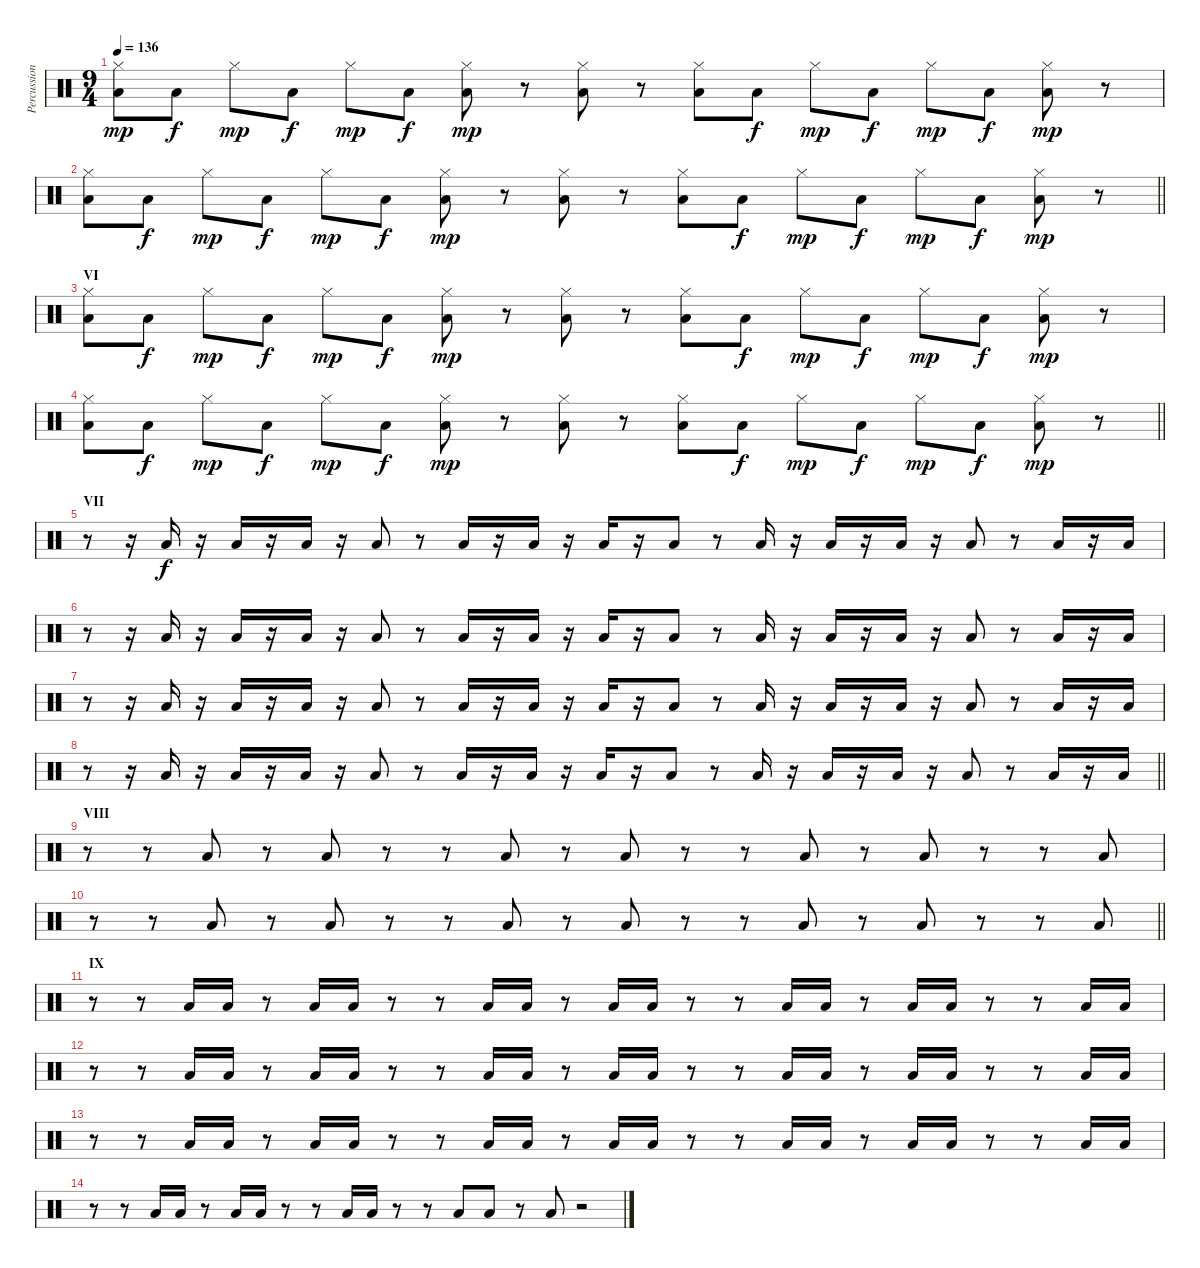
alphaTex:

\track ("Percussions" "Percussion") {instrument percussion}
\staff {score}
\articulation defaults
\ts (9 4)
\tempo 136
\clef neutral
\ks c
("Hi-Hat (closed)" "Low Tom (hit)").8{dy mp} "Low Tom (hit)".8{dy f} "Hi-Hat (closed)".8{dy mp} "Low Tom (hit)".8{dy f} "Hi-Hat (closed)".8{dy mp} "Low Tom (hit)".8{dy f} ("Hi-Hat (closed)" "Low Tom (hit)").8{dy mp} r.8 ("Hi-Hat (closed)" "Low Tom (hit)").8 r.8 ("Hi-Hat (closed)" "Low Tom (hit)").8 "Low Tom (hit)".8{dy f} "Hi-Hat (closed)".8{dy mp} "Low Tom (hit)".8{dy f} "Hi-Hat (closed)".8{dy mp} "Low Tom (hit)".8{dy f} ("Hi-Hat (closed)" "Low Tom (hit)").8{dy mp} r.8 |
\barLineRight lightlight
("Hi-Hat (closed)" "Low Tom (hit)").8 "Low Tom (hit)".8{dy f} "Hi-Hat (closed)".8{dy mp} "Low Tom (hit)".8{dy f} "Hi-Hat (closed)".8{dy mp} "Low Tom (hit)".8{dy f} ("Hi-Hat (closed)" "Low Tom (hit)").8{dy mp} r.8 ("Hi-Hat (closed)" "Low Tom (hit)").8 r.8 ("Hi-Hat (closed)" "Low Tom (hit)").8 "Low Tom (hit)".8{dy f} "Hi-Hat (closed)".8{dy mp} "Low Tom (hit)".8{dy f} "Hi-Hat (closed)".8{dy mp} "Low Tom (hit)".8{dy f} ("Hi-Hat (closed)" "Low Tom (hit)").8{dy mp} r.8 |
\section ("" "VI")
("Hi-Hat (closed)" "Low Tom (hit)").8 "Low Tom (hit)".8{dy f} "Hi-Hat (closed)".8{dy mp} "Low Tom (hit)".8{dy f} "Hi-Hat (closed)".8{dy mp} "Low Tom (hit)".8{dy f} ("Hi-Hat (closed)" "Low Tom (hit)").8{dy mp} r.8 ("Hi-Hat (closed)" "Low Tom (hit)").8 r.8 ("Hi-Hat (closed)" "Low Tom (hit)").8 "Low Tom (hit)".8{dy f} "Hi-Hat (closed)".8{dy mp} "Low Tom (hit)".8{dy f} "Hi-Hat (closed)".8{dy mp} "Low Tom (hit)".8{dy f} ("Hi-Hat (closed)" "Low Tom (hit)").8{dy mp} r.8 |
\barLineRight lightlight
("Hi-Hat (closed)" "Low Tom (hit)").8 "Low Tom (hit)".8{dy f} "Hi-Hat (closed)".8{dy mp} "Low Tom (hit)".8{dy f} "Hi-Hat (closed)".8{dy mp} "Low Tom (hit)".8{dy f} ("Hi-Hat (closed)" "Low Tom (hit)").8{dy mp} r.8 ("Hi-Hat (closed)" "Low Tom (hit)").8 r.8 ("Hi-Hat (closed)" "Low Tom (hit)").8 "Low Tom (hit)".8{dy f} "Hi-Hat (closed)".8{dy mp} "Low Tom (hit)".8{dy f} "Hi-Hat (closed)".8{dy mp} "Low Tom (hit)".8{dy f} ("Hi-Hat (closed)" "Low Tom (hit)").8{dy mp} r.8 |
\section ("" "VII")
r.8 r.16 "Low Floor Tom (hit)".16{dy f} r.16 "Low Floor Tom (hit)".16 r.16 "Low Floor Tom (hit)".16 r.16 "Low Floor Tom (hit)".8 r.8 "Low Floor Tom (hit)".16 r.16 "Low Floor Tom (hit)".16 r.16 "Low Floor Tom (hit)".16 r.16 "Low Floor Tom (hit)".8 r.8 "Low Floor Tom (hit)".16 r.16 "Low Floor Tom (hit)".16 r.16 "Low Floor Tom (hit)".16 r.16 "Low Floor Tom (hit)".8 r.8 "Low Floor Tom (hit)".16 r.16 "Low Floor Tom (hit)".16 |
r.8 r.16 "Low Floor Tom (hit)".16 r.16 "Low Floor Tom (hit)".16 r.16 "Low Floor Tom (hit)".16 r.16 "Low Floor Tom (hit)".8 r.8 "Low Floor Tom (hit)".16 r.16 "Low Floor Tom (hit)".16 r.16 "Low Floor Tom (hit)".16 r.16 "Low Floor Tom (hit)".8 r.8 "Low Floor Tom (hit)".16 r.16 "Low Floor Tom (hit)".16 r.16 "Low Floor Tom (hit)".16 r.16 "Low Floor Tom (hit)".8 r.8 "Low Floor Tom (hit)".16 r.16 "Low Floor Tom (hit)".16 |
r.8 r.16 "Low Floor Tom (hit)".16 r.16 "Low Floor Tom (hit)".16 r.16 "Low Floor Tom (hit)".16 r.16 "Low Floor Tom (hit)".8 r.8 "Low Floor Tom (hit)".16 r.16 "Low Floor Tom (hit)".16 r.16 "Low Floor Tom (hit)".16 r.16 "Low Floor Tom (hit)".8 r.8 "Low Floor Tom (hit)".16 r.16 "Low Floor Tom (hit)".16 r.16 "Low Floor Tom (hit)".16 r.16 "Low Floor Tom (hit)".8 r.8 "Low Floor Tom (hit)".16 r.16 "Low Floor Tom (hit)".16 |
\barLineRight lightlight
r.8 r.16 "Low Floor Tom (hit)".16 r.16 "Low Floor Tom (hit)".16 r.16 "Low Floor Tom (hit)".16 r.16 "Low Floor Tom (hit)".8 r.8 "Low Floor Tom (hit)".16 r.16 "Low Floor Tom (hit)".16 r.16 "Low Floor Tom (hit)".16 r.16 "Low Floor Tom (hit)".8 r.8 "Low Floor Tom (hit)".16 r.16 "Low Floor Tom (hit)".16 r.16 "Low Floor Tom (hit)".16 r.16 "Low Floor Tom (hit)".8 r.8 "Low Floor Tom (hit)".16 r.16 "Low Floor Tom (hit)".16 |
\section ("" "VIII")
r.8 r.8 "Low Floor Tom (hit)".8 r.8 "Low Floor Tom (hit)".8 r.8 r.8 "Low Floor Tom (hit)".8 r.8 "Low Floor Tom (hit)".8 r.8 r.8 "Low Floor Tom (hit)".8 r.8 "Low Floor Tom (hit)".8 r.8 r.8 "Low Floor Tom (hit)".8 |
\barLineRight lightlight
r.8 r.8 "Low Floor Tom (hit)".8 r.8 "Low Floor Tom (hit)".8 r.8 r.8 "Low Floor Tom (hit)".8 r.8 "Low Floor Tom (hit)".8 r.8 r.8 "Low Floor Tom (hit)".8 r.8 "Low Floor Tom (hit)".8 r.8 r.8 "Low Floor Tom (hit)".8 |
\section ("" "IX")
r.8 r.8 "Low Floor Tom (hit)".16 "Low Floor Tom (hit)".16 r.8 "Low Floor Tom (hit)".16 "Low Floor Tom (hit)".16 r.8 r.8 "Low Floor Tom (hit)".16 "Low Floor Tom (hit)".16 r.8 "Low Floor Tom (hit)".16 "Low Floor Tom (hit)".16 r.8 r.8 "Low Floor Tom (hit)".16 "Low Floor Tom (hit)".16 r.8 "Low Floor Tom (hit)".16 "Low Floor Tom (hit)".16 r.8 r.8 "Low Floor Tom (hit)".16 "Low Floor Tom (hit)".16 |
r.8 r.8 "Low Floor Tom (hit)".16 "Low Floor Tom (hit)".16 r.8 "Low Floor Tom (hit)".16 "Low Floor Tom (hit)".16 r.8 r.8 "Low Floor Tom (hit)".16 "Low Floor Tom (hit)".16 r.8 "Low Floor Tom (hit)".16 "Low Floor Tom (hit)".16 r.8 r.8 "Low Floor Tom (hit)".16 "Low Floor Tom (hit)".16 r.8 "Low Floor Tom (hit)".16 "Low Floor Tom (hit)".16 r.8 r.8 "Low Floor Tom (hit)".16 "Low Floor Tom (hit)".16 |
r.8 r.8 "Low Floor Tom (hit)".16 "Low Floor Tom (hit)".16 r.8 "Low Floor Tom (hit)".16 "Low Floor Tom (hit)".16 r.8 r.8 "Low Floor Tom (hit)".16 "Low Floor Tom (hit)".16 r.8 "Low Floor Tom (hit)".16 "Low Floor Tom (hit)".16 r.8 r.8 "Low Floor Tom (hit)".16 "Low Floor Tom (hit)".16 r.8 "Low Floor Tom (hit)".16 "Low Floor Tom (hit)".16 r.8 r.8 "Low Floor Tom (hit)".16 "Low Floor Tom (hit)".16 |
r.8 r.8 "Low Floor Tom (hit)".16 "Low Floor Tom (hit)".16 r.8 "Low Floor Tom (hit)".16 "Low Floor Tom (hit)".16 r.8 r.8 "Low Floor Tom (hit)".16 "Low Floor Tom (hit)".16 r.8 r.8 "Low Tom (hit)".8 "Low Tom (hit)".8 r.8 "Low Tom (hit)".8 r.2
